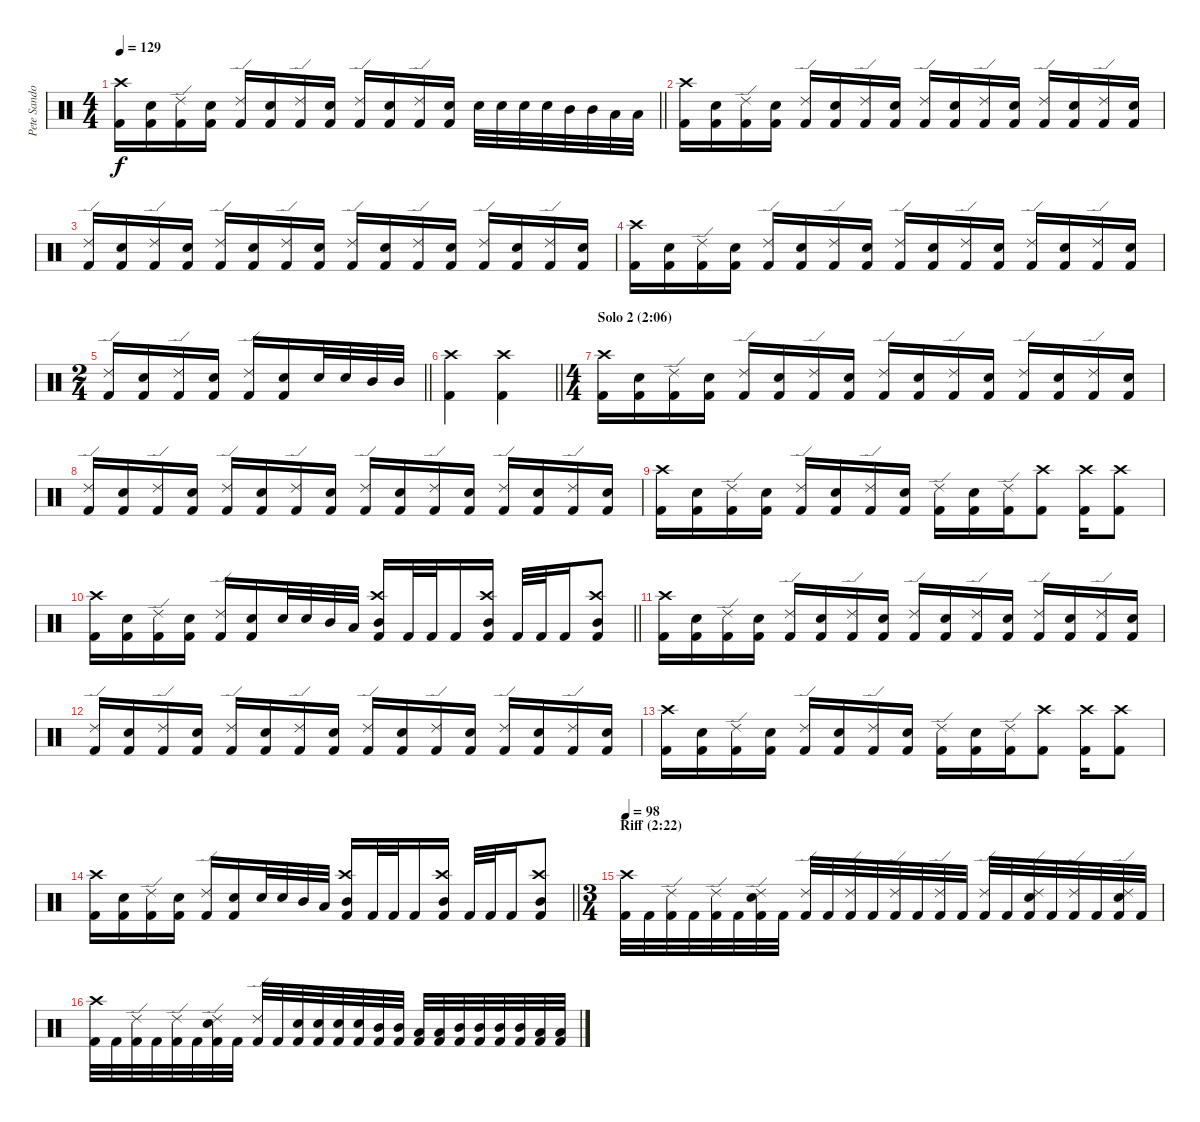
\track ("Pete Sandoval " "Pete Sando") {instrument percussion}
\staff {score}
\articulation defaults
\ts (4 4)
\tempo 129
\clef neutral
\barLineRight lightlight
\ks c
("Kick (hit) 2" "Crash high (hit)").16{dy f} ("Kick (hit) 2" "Snare (hit) 2").16 ("Kick (hit) 2" "Ride (edge) 2").16 ("Kick (hit) 2" "Snare (hit) 2").16 ("Kick (hit) 2" "Ride (edge) 2").16 ("Kick (hit) 2" "Snare (hit) 2").16 ("Kick (hit) 2" "Ride (edge) 2").16 ("Kick (hit) 2" "Snare (hit) 2").16 ("Kick (hit) 2" "Ride (edge) 2").16 ("Kick (hit) 2" "Snare (hit) 2").16 ("Kick (hit) 2" "Ride (edge) 2").16 ("Kick (hit) 2" "Snare (hit) 2").16 "Snare (hit) 2".32 "Snare (hit) 2".32 "Snare (hit) 2".32 "Snare (hit) 2".32 "Mid Tom (hit)".32 "Mid Tom (hit)".32 "Low Tom (hit)".32 "Low Tom (hit)".32 |
("Kick (hit) 2" "Crash high (hit)").16 ("Kick (hit) 2" "Snare (hit) 2").16 ("Kick (hit) 2" "Ride (edge) 2").16 ("Kick (hit) 2" "Snare (hit) 2").16 ("Kick (hit) 2" "Ride (edge) 2").16 ("Kick (hit) 2" "Snare (hit) 2").16 ("Kick (hit) 2" "Ride (edge) 2").16 ("Kick (hit) 2" "Snare (hit) 2").16 ("Kick (hit) 2" "Ride (edge) 2").16 ("Kick (hit) 2" "Snare (hit) 2").16 ("Kick (hit) 2" "Ride (edge) 2").16 ("Kick (hit) 2" "Snare (hit) 2").16 ("Kick (hit) 2" "Ride (edge) 2").16 ("Kick (hit) 2" "Snare (hit) 2").16 ("Kick (hit) 2" "Ride (edge) 2").16 ("Kick (hit) 2" "Snare (hit) 2").16 |
("Kick (hit) 2" "Ride (edge) 2").16 ("Kick (hit) 2" "Snare (hit) 2").16 ("Kick (hit) 2" "Ride (edge) 2").16 ("Kick (hit) 2" "Snare (hit) 2").16 ("Kick (hit) 2" "Ride (edge) 2").16 ("Kick (hit) 2" "Snare (hit) 2").16 ("Kick (hit) 2" "Ride (edge) 2").16 ("Kick (hit) 2" "Snare (hit) 2").16 ("Kick (hit) 2" "Ride (edge) 2").16 ("Kick (hit) 2" "Snare (hit) 2").16 ("Kick (hit) 2" "Ride (edge) 2").16 ("Kick (hit) 2" "Snare (hit) 2").16 ("Kick (hit) 2" "Ride (edge) 2").16 ("Kick (hit) 2" "Snare (hit) 2").16 ("Kick (hit) 2" "Ride (edge) 2").16 ("Kick (hit) 2" "Snare (hit) 2").16 |
("Kick (hit) 2" "Crash high (hit)").16 ("Kick (hit) 2" "Snare (hit) 2").16 ("Kick (hit) 2" "Ride (edge) 2").16 ("Kick (hit) 2" "Snare (hit) 2").16 ("Kick (hit) 2" "Ride (edge) 2").16 ("Kick (hit) 2" "Snare (hit) 2").16 ("Kick (hit) 2" "Ride (edge) 2").16 ("Kick (hit) 2" "Snare (hit) 2").16 ("Kick (hit) 2" "Ride (edge) 2").16 ("Kick (hit) 2" "Snare (hit) 2").16 ("Kick (hit) 2" "Ride (edge) 2").16 ("Kick (hit) 2" "Snare (hit) 2").16 ("Kick (hit) 2" "Ride (edge) 2").16 ("Kick (hit) 2" "Snare (hit) 2").16 ("Kick (hit) 2" "Ride (edge) 2").16 ("Kick (hit) 2" "Snare (hit) 2").16 |
\ts (2 4)
\barLineRight lightlight
("Kick (hit) 2" "Ride (edge) 2").16 ("Kick (hit) 2" "Snare (hit) 2").16 ("Kick (hit) 2" "Ride (edge) 2").16 ("Kick (hit) 2" "Snare (hit) 2").16 ("Kick (hit) 2" "Ride (edge) 2").16 ("Kick (hit) 2" "Snare (hit) 2").16 "Snare (hit) 2".32 "Snare (hit) 2".32 "Mid Tom (hit)".32 "Mid Tom (hit)".32 |
\barLineRight lightlight
("Kick (hit) 2" "Crash high (hit)").4 ("Kick (hit) 2" "Crash high (hit)").4 |
\ts (4 4)
\section ("" "Solo 2 (2:06)")
("Kick (hit) 2" "Crash high (hit)").16 ("Kick (hit) 2" "Snare (hit) 2").16 ("Kick (hit) 2" "Ride (edge) 2").16 ("Kick (hit) 2" "Snare (hit) 2").16 ("Kick (hit) 2" "Ride (edge) 2").16 ("Kick (hit) 2" "Snare (hit) 2").16 ("Kick (hit) 2" "Ride (edge) 2").16 ("Kick (hit) 2" "Snare (hit) 2").16 ("Kick (hit) 2" "Ride (edge) 2").16 ("Kick (hit) 2" "Snare (hit) 2").16 ("Kick (hit) 2" "Ride (edge) 2").16 ("Kick (hit) 2" "Snare (hit) 2").16 ("Kick (hit) 2" "Ride (edge) 2").16 ("Kick (hit) 2" "Snare (hit) 2").16 ("Kick (hit) 2" "Ride (edge) 2").16 ("Kick (hit) 2" "Snare (hit) 2").16 |
("Kick (hit) 2" "Ride (edge) 2").16 ("Kick (hit) 2" "Snare (hit) 2").16 ("Kick (hit) 2" "Ride (edge) 2").16 ("Kick (hit) 2" "Snare (hit) 2").16 ("Kick (hit) 2" "Ride (edge) 2").16 ("Kick (hit) 2" "Snare (hit) 2").16 ("Kick (hit) 2" "Ride (edge) 2").16 ("Kick (hit) 2" "Snare (hit) 2").16 ("Kick (hit) 2" "Ride (edge) 2").16 ("Kick (hit) 2" "Snare (hit) 2").16 ("Kick (hit) 2" "Ride (edge) 2").16 ("Kick (hit) 2" "Snare (hit) 2").16 ("Kick (hit) 2" "Ride (edge) 2").16 ("Kick (hit) 2" "Snare (hit) 2").16 ("Kick (hit) 2" "Ride (edge) 2").16 ("Kick (hit) 2" "Snare (hit) 2").16 |
("Kick (hit) 2" "Crash high (hit)").16 ("Kick (hit) 2" "Snare (hit) 2").16 ("Kick (hit) 2" "Ride (edge) 2").16 ("Kick (hit) 2" "Snare (hit) 2").16 ("Kick (hit) 2" "Ride (edge) 2").16 ("Kick (hit) 2" "Snare (hit) 2").16 ("Kick (hit) 2" "Ride (edge) 2").16 ("Kick (hit) 2" "Snare (hit) 2").16 ("Kick (hit) 2" "Ride (edge) 2").16 ("Kick (hit) 2" "Snare (hit) 2").16 ("Kick (hit) 2" "Ride (edge) 2").16 ("Kick (hit) 2" "Crash high (hit)").8 ("Kick (hit) 2" "Crash high (hit)").16 ("Kick (hit) 2" "Crash high (hit)").8 |
\barLineRight lightlight
("Kick (hit) 2" "Crash high (hit)").16 ("Kick (hit) 2" "Snare (hit) 2").16 ("Kick (hit) 2" "Ride (edge) 2").16 ("Kick (hit) 2" "Snare (hit) 2").16 ("Kick (hit) 2" "Ride (edge) 2").16 ("Kick (hit) 2" "Snare (hit) 2").16 "Snare (hit) 2".32 "Snare (hit) 2".32 "Mid Tom (hit)".32 "Low Tom (hit)".32 ("Kick (hit) 2" "Mid Tom (hit)" "Crash high (hit)").16 "Kick (hit) 2".32 "Kick (hit) 2".32 "Kick (hit) 2".16 ("Kick (hit) 2" "Mid Tom (hit)" "Crash high (hit)").16 "Kick (hit) 2".32 "Kick (hit) 2".32 "Kick (hit) 2".16 ("Kick (hit) 2" "Mid Tom (hit)" "Crash high (hit)").8 |
("Kick (hit) 2" "Crash high (hit)").16 ("Kick (hit) 2" "Snare (hit) 2").16 ("Kick (hit) 2" "Ride (edge) 2").16 ("Kick (hit) 2" "Snare (hit) 2").16 ("Kick (hit) 2" "Ride (edge) 2").16 ("Kick (hit) 2" "Snare (hit) 2").16 ("Kick (hit) 2" "Ride (edge) 2").16 ("Kick (hit) 2" "Snare (hit) 2").16 ("Kick (hit) 2" "Ride (edge) 2").16 ("Kick (hit) 2" "Snare (hit) 2").16 ("Kick (hit) 2" "Ride (edge) 2").16 ("Kick (hit) 2" "Snare (hit) 2").16 ("Kick (hit) 2" "Ride (edge) 2").16 ("Kick (hit) 2" "Snare (hit) 2").16 ("Kick (hit) 2" "Ride (edge) 2").16 ("Kick (hit) 2" "Snare (hit) 2").16 |
("Kick (hit) 2" "Ride (edge) 2").16 ("Kick (hit) 2" "Snare (hit) 2").16 ("Kick (hit) 2" "Ride (edge) 2").16 ("Kick (hit) 2" "Snare (hit) 2").16 ("Kick (hit) 2" "Ride (edge) 2").16 ("Kick (hit) 2" "Snare (hit) 2").16 ("Kick (hit) 2" "Ride (edge) 2").16 ("Kick (hit) 2" "Snare (hit) 2").16 ("Kick (hit) 2" "Ride (edge) 2").16 ("Kick (hit) 2" "Snare (hit) 2").16 ("Kick (hit) 2" "Ride (edge) 2").16 ("Kick (hit) 2" "Snare (hit) 2").16 ("Kick (hit) 2" "Ride (edge) 2").16 ("Kick (hit) 2" "Snare (hit) 2").16 ("Kick (hit) 2" "Ride (edge) 2").16 ("Kick (hit) 2" "Snare (hit) 2").16 |
("Kick (hit) 2" "Crash high (hit)").16 ("Kick (hit) 2" "Snare (hit) 2").16 ("Kick (hit) 2" "Ride (edge) 2").16 ("Kick (hit) 2" "Snare (hit) 2").16 ("Kick (hit) 2" "Ride (edge) 2").16 ("Kick (hit) 2" "Snare (hit) 2").16 ("Kick (hit) 2" "Ride (edge) 2").16 ("Kick (hit) 2" "Snare (hit) 2").16 ("Kick (hit) 2" "Ride (edge) 2").16 ("Kick (hit) 2" "Snare (hit) 2").16 ("Kick (hit) 2" "Ride (edge) 2").16 ("Kick (hit) 2" "Crash high (hit)").8 ("Kick (hit) 2" "Crash high (hit)").16 ("Kick (hit) 2" "Crash high (hit)").8 |
\barLineRight lightlight
("Kick (hit) 2" "Crash high (hit)").16 ("Kick (hit) 2" "Snare (hit) 2").16 ("Kick (hit) 2" "Ride (edge) 2").16 ("Kick (hit) 2" "Snare (hit) 2").16 ("Kick (hit) 2" "Ride (edge) 2").16 ("Kick (hit) 2" "Snare (hit) 2").16 "Snare (hit) 2".32 "Snare (hit) 2".32 "Mid Tom (hit)".32 "Low Tom (hit)".32 ("Kick (hit) 2" "Mid Tom (hit)" "Crash high (hit)").16 "Kick (hit) 2".32 "Kick (hit) 2".32 "Kick (hit) 2".16 ("Kick (hit) 2" "Mid Tom (hit)" "Crash high (hit)").16 "Kick (hit) 2".32 "Kick (hit) 2".32 "Kick (hit) 2".16 ("Kick (hit) 2" "Mid Tom (hit)" "Crash high (hit)").8 |
\ts (3 4)
\section ("" "Riff (2:22)")
\tempo 98
("Kick (hit) 2" "Crash high (hit)").32 "Kick (hit) 2".32 ("Kick (hit) 2" "Ride (edge) 2").32 "Kick (hit) 2".32 ("Kick (hit) 2" "Ride (edge) 2").32 "Kick (hit) 2".32 ("Kick (hit) 2" "Snare (hit) 2" "Ride (edge) 2").32 "Kick (hit) 2".32 ("Kick (hit) 2" "Ride (edge) 2").32 "Kick (hit) 2".32 ("Kick (hit) 2" "Ride (edge) 2").32 "Kick (hit) 2".32 ("Kick (hit) 2" "Ride (edge) 2").32 "Kick (hit) 2".32 ("Kick (hit) 2" "Ride (edge) 2").32 "Kick (hit) 2".32 ("Kick (hit) 2" "Ride (edge) 2").32 "Kick (hit) 2".32 ("Kick (hit) 2" "Snare (hit) 2" "Ride (edge) 2").32 "Kick (hit) 2".32 ("Kick (hit) 2" "Ride (edge) 2").32 "Kick (hit) 2".32 ("Kick (hit) 2" "Snare (hit) 2" "Ride (edge) 2").32 "Kick (hit) 2".32 |
("Kick (hit) 2" "Crash high (hit)").32 "Kick (hit) 2".32 ("Kick (hit) 2" "Ride (edge) 2").32 "Kick (hit) 2".32 ("Kick (hit) 2" "Ride (edge) 2").32 "Kick (hit) 2".32 ("Kick (hit) 2" "Snare (hit) 2" "Ride (edge) 2").32 "Kick (hit) 2".32 ("Kick (hit) 2" "Ride (edge) 2").32 "Kick (hit) 2".32 ("Kick (hit) 2" "Snare (hit) 2").32 ("Kick (hit) 2" "Snare (hit) 2").32 ("Kick (hit) 2" "Snare (hit) 2").32 ("Kick (hit) 2" "Snare (hit) 2").32 ("Kick (hit) 2" "Mid Tom (hit)").32 ("Kick (hit) 2" "Mid Tom (hit)").32 ("Kick (hit) 2" "Low Tom (hit)").32 ("Kick (hit) 2" "Low Tom (hit)").32 ("Kick (hit) 2" "Mid Tom (hit)").32 ("Kick (hit) 2" "Mid Tom (hit)").32 ("Kick (hit) 2" "Mid Tom (hit)").32 ("Kick (hit) 2" "Mid Tom (hit)").32 ("Kick (hit) 2" "Low Tom (hit)").32 ("Kick (hit) 2" "Low Tom (hit)").32
